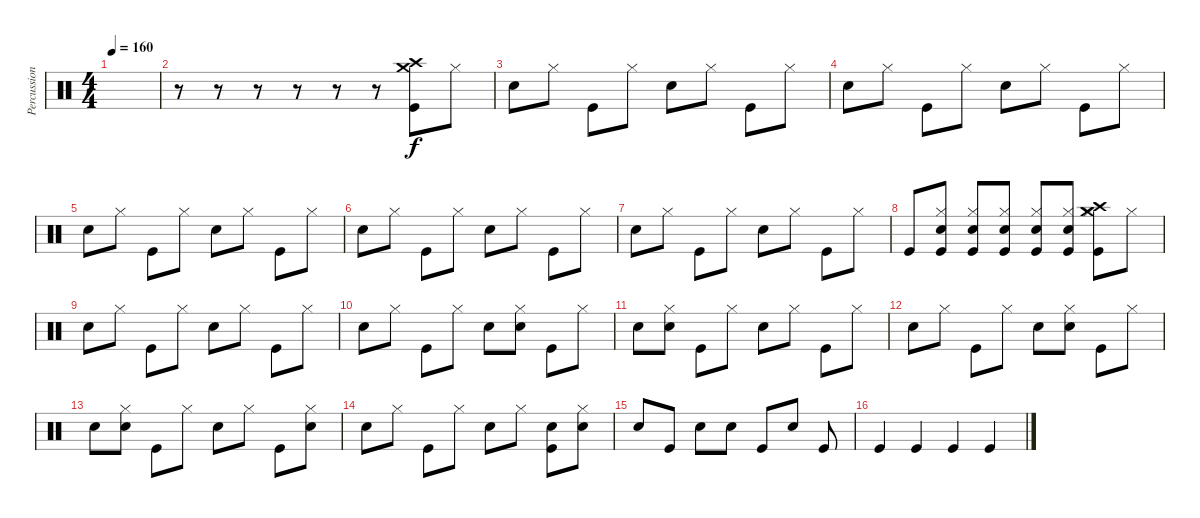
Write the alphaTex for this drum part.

\track ("Percussion" "Percussion") {instrument percussion}
\staff {score}
\articulation defaults
\ts (4 4)
\tempo 160
\clef neutral
\ks c
|
r.8 r.8 r.8 r.8 r.8 r.8 ("Kick (hit)" "Crash high (hit)" "Crash medium (hit)").8 "Hi-Hat (closed)".8 |
"Snare (hit) 2".8 "Hi-Hat (closed)".8 "Kick (hit)".8 "Hi-Hat (closed)".8 "Snare (hit) 2".8 "Hi-Hat (closed)".8 "Kick (hit)".8 "Hi-Hat (closed)".8 |
"Snare (hit) 2".8 "Hi-Hat (closed)".8 "Kick (hit)".8 "Hi-Hat (closed)".8 "Snare (hit) 2".8 "Hi-Hat (closed)".8 "Kick (hit)".8 "Hi-Hat (closed)".8 |
"Snare (hit) 2".8 "Hi-Hat (closed)".8 "Kick (hit)".8 "Hi-Hat (closed)".8 "Snare (hit) 2".8 "Hi-Hat (closed)".8 "Kick (hit)".8 "Hi-Hat (closed)".8 |
"Snare (hit) 2".8 "Hi-Hat (closed)".8 "Kick (hit)".8 "Hi-Hat (closed)".8 "Snare (hit) 2".8 "Hi-Hat (closed)".8 "Kick (hit)".8 "Hi-Hat (closed)".8 |
"Snare (hit) 2".8 "Hi-Hat (closed)".8 "Kick (hit)".8 "Hi-Hat (closed)".8 "Snare (hit) 2".8 "Hi-Hat (closed)".8 "Kick (hit)".8 "Hi-Hat (closed)".8 |
"Kick (hit)".8 ("Kick (hit)" "Hi-Hat (closed)" "Snare (hit) 2").8 ("Kick (hit)" "Snare (hit) 2" "Hi-Hat (closed)").8 ("Snare (hit) 2" "Hi-Hat (closed)" "Kick (hit)").8 ("Snare (hit) 2" "Hi-Hat (closed)" "Kick (hit)").8 ("Snare (hit) 2" "Hi-Hat (closed)" "Kick (hit)").8 ("Kick (hit)" "Crash medium (hit)" "Hi-Hat (closed)" "Crash high (hit)").8 "Hi-Hat (closed)".8 |
"Snare (hit) 2".8 "Hi-Hat (closed)".8 "Kick (hit)".8 "Hi-Hat (closed)".8 "Snare (hit) 2".8 "Hi-Hat (closed)".8 "Kick (hit)".8 "Hi-Hat (closed)".8 |
"Snare (hit) 2".8 "Hi-Hat (closed)".8 "Kick (hit)".8 "Hi-Hat (closed)".8 "Snare (hit) 2".8 ("Snare (hit) 2" "Hi-Hat (closed)").8 "Kick (hit)".8 "Hi-Hat (closed)".8 |
"Snare (hit) 2".8 ("Snare (hit) 2" "Hi-Hat (closed)").8 "Kick (hit)".8 "Hi-Hat (closed)".8 "Snare (hit) 2".8 "Hi-Hat (closed)".8 "Kick (hit)".8 "Hi-Hat (closed)".8 |
"Snare (hit) 2".8 "Hi-Hat (closed)".8 "Kick (hit)".8 "Hi-Hat (closed)".8 "Snare (hit) 2".8 ("Snare (hit) 2" "Hi-Hat (closed)").8 "Kick (hit)".8 "Hi-Hat (closed)".8 |
"Snare (hit) 2".8 ("Snare (hit) 2" "Hi-Hat (closed)").8 "Kick (hit)".8 "Hi-Hat (closed)".8 "Snare (hit) 2".8 "Hi-Hat (closed)".8 "Kick (hit)".8 ("Snare (hit) 2" "Hi-Hat (closed)").8 |
"Snare (hit) 2".8 "Hi-Hat (closed)".8 "Kick (hit)".8 "Hi-Hat (closed)".8 "Snare (hit) 2".8 "Hi-Hat (closed)".8 ("Kick (hit)" "Snare (hit) 2").8 ("Snare (hit) 2" "Hi-Hat (closed)").8 |
"Snare (hit) 2".8 "Kick (hit)".8 "Snare (hit) 2".8 "Snare (hit) 2".8 "Kick (hit)".8 "Snare (hit) 2".8 "Kick (hit)".8 |
"Kick (hit)".4 "Kick (hit)".4 "Kick (hit)".4 "Kick (hit)".4
